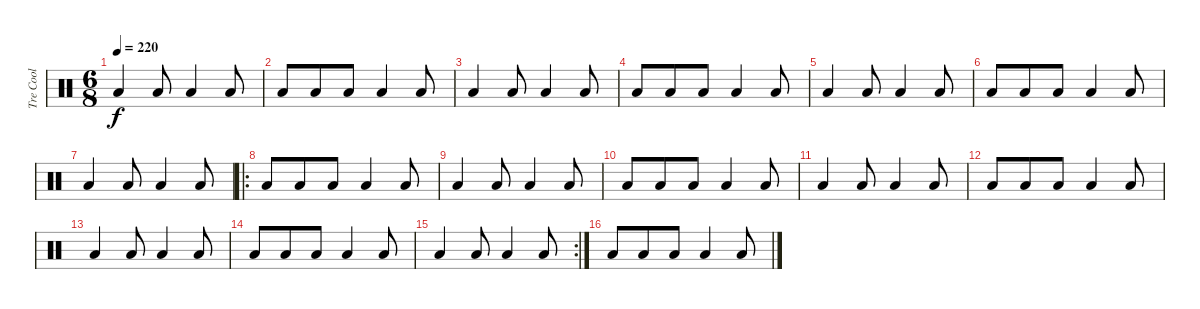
\track ("Tre Cool" "Tre Cool") {instrument percussion}
\staff {score}
\articulation defaults
\ts (6 8)
\tempo 220
\clef neutral
\ks c "Low Floor Tom (hit)".4{dy f} "Low Floor Tom (hit)".8 "Low Tom (hit)".4 "Low Tom (hit)".8
|
"Low Floor Tom (hit)".8 "Low Floor Tom (hit)".8 "Low Floor Tom (hit)".8 "Low Tom (hit)".4 "Low Tom (hit)".8 |
"Low Floor Tom (hit)".4 "Low Floor Tom (hit)".8 "Low Tom (hit)".4 "Low Tom (hit)".8 |
"Low Floor Tom (hit)".8 "Low Floor Tom (hit)".8 "Low Floor Tom (hit)".8 "Low Tom (hit)".4 "Low Tom (hit)".8 |
"Low Floor Tom (hit)".4 "Low Floor Tom (hit)".8 "Low Tom (hit)".4 "Low Tom (hit)".8 |
"Low Floor Tom (hit)".8 "Low Floor Tom (hit)".8 "Low Floor Tom (hit)".8 "Low Tom (hit)".4 "Low Tom (hit)".8 |
"Low Floor Tom (hit)".4 "Low Floor Tom (hit)".8 "Low Tom (hit)".4 "Low Tom (hit)".8 |
\ro "Low Floor Tom (hit)".8 "Low Floor Tom (hit)".8 "Low Floor Tom (hit)".8 "Low Tom (hit)".4 "Low Tom (hit)".8
|
"Low Floor Tom (hit)".4 "Low Floor Tom (hit)".8 "Low Tom (hit)".4 "Low Tom (hit)".8 |
"Low Floor Tom (hit)".8 "Low Floor Tom (hit)".8 "Low Floor Tom (hit)".8 "Low Tom (hit)".4 "Low Tom (hit)".8 |
"Low Floor Tom (hit)".4 "Low Floor Tom (hit)".8 "Low Tom (hit)".4 "Low Tom (hit)".8 |
"Low Floor Tom (hit)".8 "Low Floor Tom (hit)".8 "Low Floor Tom (hit)".8 "Low Tom (hit)".4 "Low Tom (hit)".8 |
"Low Floor Tom (hit)".4 "Low Floor Tom (hit)".8 "Low Tom (hit)".4 "Low Tom (hit)".8 |
"Low Floor Tom (hit)".8 "Low Floor Tom (hit)".8 "Low Floor Tom (hit)".8 "Low Tom (hit)".4 "Low Tom (hit)".8 |
\rc 2 "Low Floor Tom (hit)".4 "Low Floor Tom (hit)".8 "Low Tom (hit)".4 "Low Tom (hit)".8
|
"Low Floor Tom (hit)".8 "Low Floor Tom (hit)".8 "Low Floor Tom (hit)".8 "Low Tom (hit)".4 "Low Tom (hit)".8
